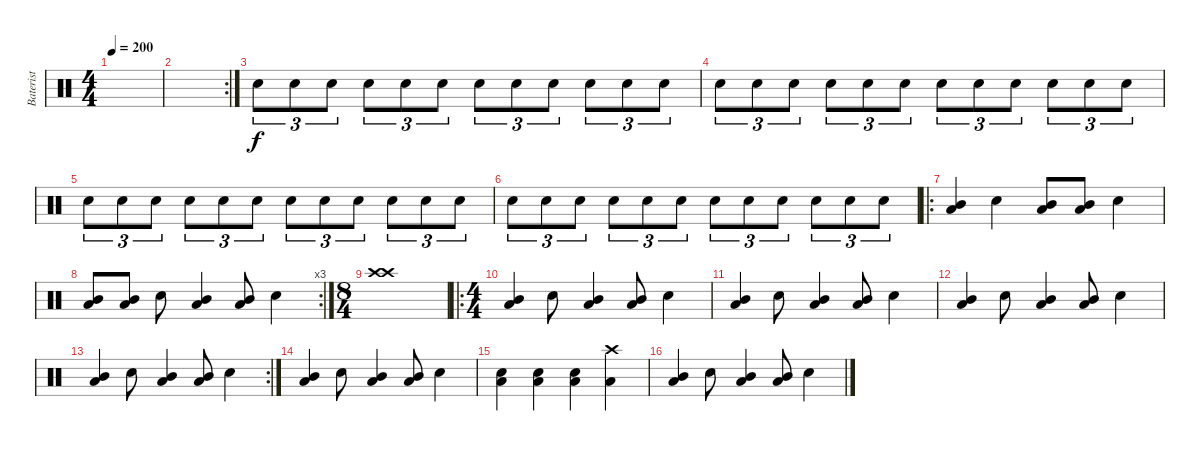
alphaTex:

\track ("Baterist" "Baterist") {instrument percussion}
\staff {score}
\articulation defaults
\ts (4 4)
\tempo 200
\clef neutral
\ks c
|
\rc 2
|
"Snare (hit) 2".8{tu (3 2)} "Snare (hit) 2".8{tu (3 2)} "Snare (hit) 2".8{tu (3 2)} "Snare (hit) 2".8{tu (3 2)} "Snare (hit) 2".8{tu (3 2)} "Snare (hit) 2".8{tu (3 2)} "Snare (hit) 2".8{tu (3 2)} "Snare (hit) 2".8{tu (3 2)} "Snare (hit) 2".8{tu (3 2)} "Snare (hit) 2".8{tu (3 2)} "Snare (hit) 2".8{tu (3 2)} "Snare (hit) 2".8{tu (3 2)} |
"Snare (hit) 2".8{tu (3 2)} "Snare (hit) 2".8{tu (3 2)} "Snare (hit) 2".8{tu (3 2)} "Electric Snare (hit)".8{tu (3 2)} "Electric Snare (hit)".8{tu (3 2)} "Electric Snare (hit)".8{tu (3 2)} "Electric Snare (hit)".8{tu (3 2)} "Electric Snare (hit)".8{tu (3 2)} "Electric Snare (hit)".8{tu (3 2)} "Electric Snare (hit)".8{tu (3 2)} "Electric Snare (hit)".8{tu (3 2)} "Electric Snare (hit)".8{tu (3 2)} |
"Snare (hit) 2".8{tu (3 2)} "Snare (hit) 2".8{tu (3 2)} "Snare (hit) 2".8{tu (3 2)} "Snare (hit) 2".8{tu (3 2)} "Snare (hit) 2".8{tu (3 2)} "Snare (hit) 2".8{tu (3 2)} "Snare (hit) 2".8{tu (3 2)} "Snare (hit) 2".8{tu (3 2)} "Snare (hit) 2".8{tu (3 2)} "Snare (hit) 2".8{tu (3 2)} "Snare (hit) 2".8{tu (3 2)} "Snare (hit) 2".8{tu (3 2)} |
"Snare (hit) 2".8{tu (3 2)} "Snare (hit) 2".8{tu (3 2)} "Snare (hit) 2".8{tu (3 2)} "Electric Snare (hit)".8{tu (3 2)} "Electric Snare (hit)".8{tu (3 2)} "Electric Snare (hit)".8{tu (3 2)} "Electric Snare (hit)".8{tu (3 2)} "Electric Snare (hit)".8{tu (3 2)} "Electric Snare (hit)".8{tu (3 2)} "Electric Snare (hit)".8{tu (3 2)} "Electric Snare (hit)".8{tu (3 2)} "Electric Snare (hit)".8{tu (3 2)} |
\ro
("Low Floor Tom (hit)" "Mid Tom (hit)").4 "Snare (hit) 2".4 ("Low Floor Tom (hit)" "Mid Tom (hit)").8 ("Low Floor Tom (hit)" "Mid Tom (hit)").8 "Snare (hit) 2".4 |
\rc 3
("Low Floor Tom (hit)" "Mid Tom (hit)").8 ("Low Floor Tom (hit)" "Mid Tom (hit)").8 "Snare (hit) 2".8 ("Low Floor Tom (hit)" "Mid Tom (hit)").4 ("Low Floor Tom (hit)" "Mid Tom (hit)").8 "Snare (hit) 2".4 |
\ts (8 4)
("Crash high (hit)" "Crash high (hit)").1 |
\ro
\ts (4 4)
("Low Floor Tom (hit)" "Mid Tom (hit)").4 "Snare (hit) 2".8 ("Low Floor Tom (hit)" "Mid Tom (hit)").4 ("Low Floor Tom (hit)" "Mid Tom (hit)").8 "Snare (hit) 2".4 |
("Low Floor Tom (hit)" "Mid Tom (hit)").4 "Snare (hit) 2".8 ("Low Floor Tom (hit)" "Mid Tom (hit)").4 ("Low Floor Tom (hit)" "Mid Tom (hit)").8 "Snare (hit) 2".4 |
("Low Floor Tom (hit)" "Mid Tom (hit)").4 "Snare (hit) 2".8 ("Low Floor Tom (hit)" "Mid Tom (hit)").4 ("Low Floor Tom (hit)" "Mid Tom (hit)").8 "Snare (hit) 2".4 |
\rc 2
("Low Floor Tom (hit)" "Mid Tom (hit)").4 "Snare (hit) 2".8 ("Low Floor Tom (hit)" "Mid Tom (hit)").4 ("Low Floor Tom (hit)" "Mid Tom (hit)").8 "Snare (hit) 2".4 |
("Low Floor Tom (hit)" "Mid Tom (hit)").4 "Snare (hit) 2".8 ("Low Floor Tom (hit)" "Mid Tom (hit)").4 ("Low Floor Tom (hit)" "Mid Tom (hit)").8 "Snare (hit) 2".4 |
("Low Floor Tom (hit)" "Snare (hit) 2").4 ("Snare (hit) 2" "Low Floor Tom (hit)").4 ("Low Floor Tom (hit)" "Snare (hit) 2").4 ("Low Floor Tom (hit)" "Crash high (hit)").4 |
("Low Floor Tom (hit)" "Mid Tom (hit)").4 "Snare (hit) 2".8 ("Low Floor Tom (hit)" "Mid Tom (hit)").4 ("Low Floor Tom (hit)" "Mid Tom (hit)").8 "Snare (hit) 2".4
